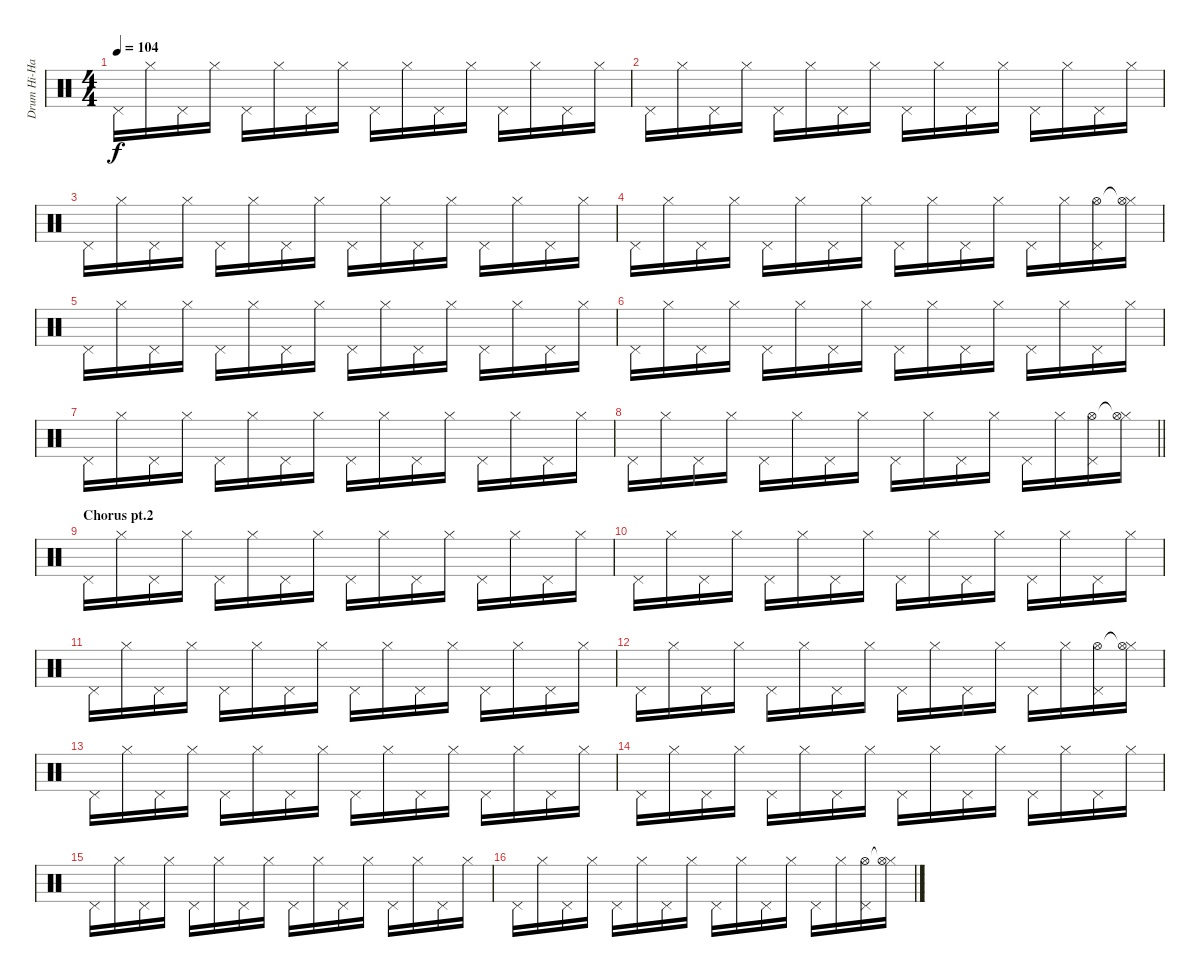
\track ("Drum Hi-Hat" "Drum Hi-Ha") {instrument percussion}
\staff {score}
\articulation defaults
\ts (4 4)
\tempo 104
\clef neutral
\ks c "Pedal Hi-Hat (hit)".16{dy f} "Hi-Hat (closed)".16 "Pedal Hi-Hat (hit)".16 "Hi-Hat (closed)".16 "Pedal Hi-Hat (hit)".16 "Hi-Hat (closed)".16 "Pedal Hi-Hat (hit)".16 "Hi-Hat (closed)".16 "Pedal Hi-Hat (hit)".16 "Hi-Hat (closed)".16 "Pedal Hi-Hat (hit)".16 "Hi-Hat (closed)".16 "Pedal Hi-Hat (hit)".16 "Hi-Hat (closed)".16 "Pedal Hi-Hat (hit)".16 "Hi-Hat (closed)".16
|
"Pedal Hi-Hat (hit)".16 "Hi-Hat (closed)".16 "Pedal Hi-Hat (hit)".16 "Hi-Hat (closed)".16 "Pedal Hi-Hat (hit)".16 "Hi-Hat (closed)".16 "Pedal Hi-Hat (hit)".16 "Hi-Hat (closed)".16 "Pedal Hi-Hat (hit)".16 "Hi-Hat (closed)".16 "Pedal Hi-Hat (hit)".16 "Hi-Hat (closed)".16 "Pedal Hi-Hat (hit)".16 "Hi-Hat (closed)".16 "Pedal Hi-Hat (hit)".16 "Hi-Hat (closed)".16 |
"Pedal Hi-Hat (hit)".16 "Hi-Hat (closed)".16 "Pedal Hi-Hat (hit)".16 "Hi-Hat (closed)".16 "Pedal Hi-Hat (hit)".16 "Hi-Hat (closed)".16 "Pedal Hi-Hat (hit)".16 "Hi-Hat (closed)".16 "Pedal Hi-Hat (hit)".16 "Hi-Hat (closed)".16 "Pedal Hi-Hat (hit)".16 "Hi-Hat (closed)".16 "Pedal Hi-Hat (hit)".16 "Hi-Hat (closed)".16 "Pedal Hi-Hat (hit)".16 "Hi-Hat (closed)".16 |
"Pedal Hi-Hat (hit)".16 "Hi-Hat (closed)".16 "Pedal Hi-Hat (hit)".16 "Hi-Hat (closed)".16 "Pedal Hi-Hat (hit)".16 "Hi-Hat (closed)".16 "Pedal Hi-Hat (hit)".16 "Hi-Hat (closed)".16 "Pedal Hi-Hat (hit)".16 "Hi-Hat (closed)".16 "Pedal Hi-Hat (hit)".16 "Hi-Hat (closed)".16 "Pedal Hi-Hat (hit)".16 "Hi-Hat (closed)".16 ("Pedal Hi-Hat (hit)" "Hi-Hat (open)").16 ("Hi-Hat (closed)" "Hi-Hat (open)"{t}).16 |
"Pedal Hi-Hat (hit)".16 "Hi-Hat (closed)".16 "Pedal Hi-Hat (hit)".16 "Hi-Hat (closed)".16 "Pedal Hi-Hat (hit)".16 "Hi-Hat (closed)".16 "Pedal Hi-Hat (hit)".16 "Hi-Hat (closed)".16 "Pedal Hi-Hat (hit)".16 "Hi-Hat (closed)".16 "Pedal Hi-Hat (hit)".16 "Hi-Hat (closed)".16 "Pedal Hi-Hat (hit)".16 "Hi-Hat (closed)".16 "Pedal Hi-Hat (hit)".16 "Hi-Hat (closed)".16 |
"Pedal Hi-Hat (hit)".16 "Hi-Hat (closed)".16 "Pedal Hi-Hat (hit)".16 "Hi-Hat (closed)".16 "Pedal Hi-Hat (hit)".16 "Hi-Hat (closed)".16 "Pedal Hi-Hat (hit)".16 "Hi-Hat (closed)".16 "Pedal Hi-Hat (hit)".16 "Hi-Hat (closed)".16 "Pedal Hi-Hat (hit)".16 "Hi-Hat (closed)".16 "Pedal Hi-Hat (hit)".16 "Hi-Hat (closed)".16 "Pedal Hi-Hat (hit)".16 "Hi-Hat (closed)".16 |
"Pedal Hi-Hat (hit)".16 "Hi-Hat (closed)".16 "Pedal Hi-Hat (hit)".16 "Hi-Hat (closed)".16 "Pedal Hi-Hat (hit)".16 "Hi-Hat (closed)".16 "Pedal Hi-Hat (hit)".16 "Hi-Hat (closed)".16 "Pedal Hi-Hat (hit)".16 "Hi-Hat (closed)".16 "Pedal Hi-Hat (hit)".16 "Hi-Hat (closed)".16 "Pedal Hi-Hat (hit)".16 "Hi-Hat (closed)".16 "Pedal Hi-Hat (hit)".16 "Hi-Hat (closed)".16 |
\barLineRight lightlight "Pedal Hi-Hat (hit)".16 "Hi-Hat (closed)".16 "Pedal Hi-Hat (hit)".16 "Hi-Hat (closed)".16 "Pedal Hi-Hat (hit)".16 "Hi-Hat (closed)".16 "Pedal Hi-Hat (hit)".16 "Hi-Hat (closed)".16 "Pedal Hi-Hat (hit)".16 "Hi-Hat (closed)".16 "Pedal Hi-Hat (hit)".16 "Hi-Hat (closed)".16 "Pedal Hi-Hat (hit)".16 "Hi-Hat (closed)".16
("Pedal Hi-Hat (hit)" "Hi-Hat (open)").16 ("Hi-Hat (closed)" "Hi-Hat (open)"{t}).16 |
\section ("" "Chorus pt.2")
"Pedal Hi-Hat (hit)".16 "Hi-Hat (closed)".16 "Pedal Hi-Hat (hit)".16 "Hi-Hat (closed)".16 "Pedal Hi-Hat (hit)".16 "Hi-Hat (closed)".16 "Pedal Hi-Hat (hit)".16 "Hi-Hat (closed)".16 "Pedal Hi-Hat (hit)".16 "Hi-Hat (closed)".16 "Pedal Hi-Hat (hit)".16 "Hi-Hat (closed)".16 "Pedal Hi-Hat (hit)".16 "Hi-Hat (closed)".16 "Pedal Hi-Hat (hit)".16 "Hi-Hat (closed)".16 |
"Pedal Hi-Hat (hit)".16 "Hi-Hat (closed)".16 "Pedal Hi-Hat (hit)".16 "Hi-Hat (closed)".16 "Pedal Hi-Hat (hit)".16 "Hi-Hat (closed)".16 "Pedal Hi-Hat (hit)".16 "Hi-Hat (closed)".16 "Pedal Hi-Hat (hit)".16 "Hi-Hat (closed)".16 "Pedal Hi-Hat (hit)".16 "Hi-Hat (closed)".16 "Pedal Hi-Hat (hit)".16 "Hi-Hat (closed)".16 "Pedal Hi-Hat (hit)".16 "Hi-Hat (closed)".16 |
"Pedal Hi-Hat (hit)".16 "Hi-Hat (closed)".16 "Pedal Hi-Hat (hit)".16 "Hi-Hat (closed)".16 "Pedal Hi-Hat (hit)".16 "Hi-Hat (closed)".16 "Pedal Hi-Hat (hit)".16 "Hi-Hat (closed)".16 "Pedal Hi-Hat (hit)".16 "Hi-Hat (closed)".16 "Pedal Hi-Hat (hit)".16 "Hi-Hat (closed)".16 "Pedal Hi-Hat (hit)".16 "Hi-Hat (closed)".16 "Pedal Hi-Hat (hit)".16 "Hi-Hat (closed)".16 |
"Pedal Hi-Hat (hit)".16 "Hi-Hat (closed)".16 "Pedal Hi-Hat (hit)".16 "Hi-Hat (closed)".16 "Pedal Hi-Hat (hit)".16 "Hi-Hat (closed)".16 "Pedal Hi-Hat (hit)".16 "Hi-Hat (closed)".16 "Pedal Hi-Hat (hit)".16 "Hi-Hat (closed)".16 "Pedal Hi-Hat (hit)".16 "Hi-Hat (closed)".16 "Pedal Hi-Hat (hit)".16 "Hi-Hat (closed)".16 ("Pedal Hi-Hat (hit)" "Hi-Hat (open)").16 ("Hi-Hat (closed)" "Hi-Hat (open)"{t}).16 |
"Pedal Hi-Hat (hit)".16 "Hi-Hat (closed)".16 "Pedal Hi-Hat (hit)".16 "Hi-Hat (closed)".16 "Pedal Hi-Hat (hit)".16 "Hi-Hat (closed)".16 "Pedal Hi-Hat (hit)".16 "Hi-Hat (closed)".16 "Pedal Hi-Hat (hit)".16 "Hi-Hat (closed)".16 "Pedal Hi-Hat (hit)".16 "Hi-Hat (closed)".16 "Pedal Hi-Hat (hit)".16 "Hi-Hat (closed)".16 "Pedal Hi-Hat (hit)".16 "Hi-Hat (closed)".16 |
"Pedal Hi-Hat (hit)".16 "Hi-Hat (closed)".16 "Pedal Hi-Hat (hit)".16 "Hi-Hat (closed)".16 "Pedal Hi-Hat (hit)".16 "Hi-Hat (closed)".16 "Pedal Hi-Hat (hit)".16 "Hi-Hat (closed)".16 "Pedal Hi-Hat (hit)".16 "Hi-Hat (closed)".16 "Pedal Hi-Hat (hit)".16 "Hi-Hat (closed)".16 "Pedal Hi-Hat (hit)".16 "Hi-Hat (closed)".16 "Pedal Hi-Hat (hit)".16 "Hi-Hat (closed)".16 |
"Pedal Hi-Hat (hit)".16 "Hi-Hat (closed)".16 "Pedal Hi-Hat (hit)".16 "Hi-Hat (closed)".16 "Pedal Hi-Hat (hit)".16 "Hi-Hat (closed)".16 "Pedal Hi-Hat (hit)".16 "Hi-Hat (closed)".16 "Pedal Hi-Hat (hit)".16 "Hi-Hat (closed)".16 "Pedal Hi-Hat (hit)".16 "Hi-Hat (closed)".16 "Pedal Hi-Hat (hit)".16 "Hi-Hat (closed)".16 "Pedal Hi-Hat (hit)".16 "Hi-Hat (closed)".16 |
"Pedal Hi-Hat (hit)".16 "Hi-Hat (closed)".16 "Pedal Hi-Hat (hit)".16 "Hi-Hat (closed)".16 "Pedal Hi-Hat (hit)".16 "Hi-Hat (closed)".16 "Pedal Hi-Hat (hit)".16 "Hi-Hat (closed)".16 "Pedal Hi-Hat (hit)".16 "Hi-Hat (closed)".16 "Pedal Hi-Hat (hit)".16 "Hi-Hat (closed)".16 "Pedal Hi-Hat (hit)".16 "Hi-Hat (closed)".16 ("Pedal Hi-Hat (hit)" "Hi-Hat (open)").16 ("Hi-Hat (closed)" "Hi-Hat (open)"{t}).16
